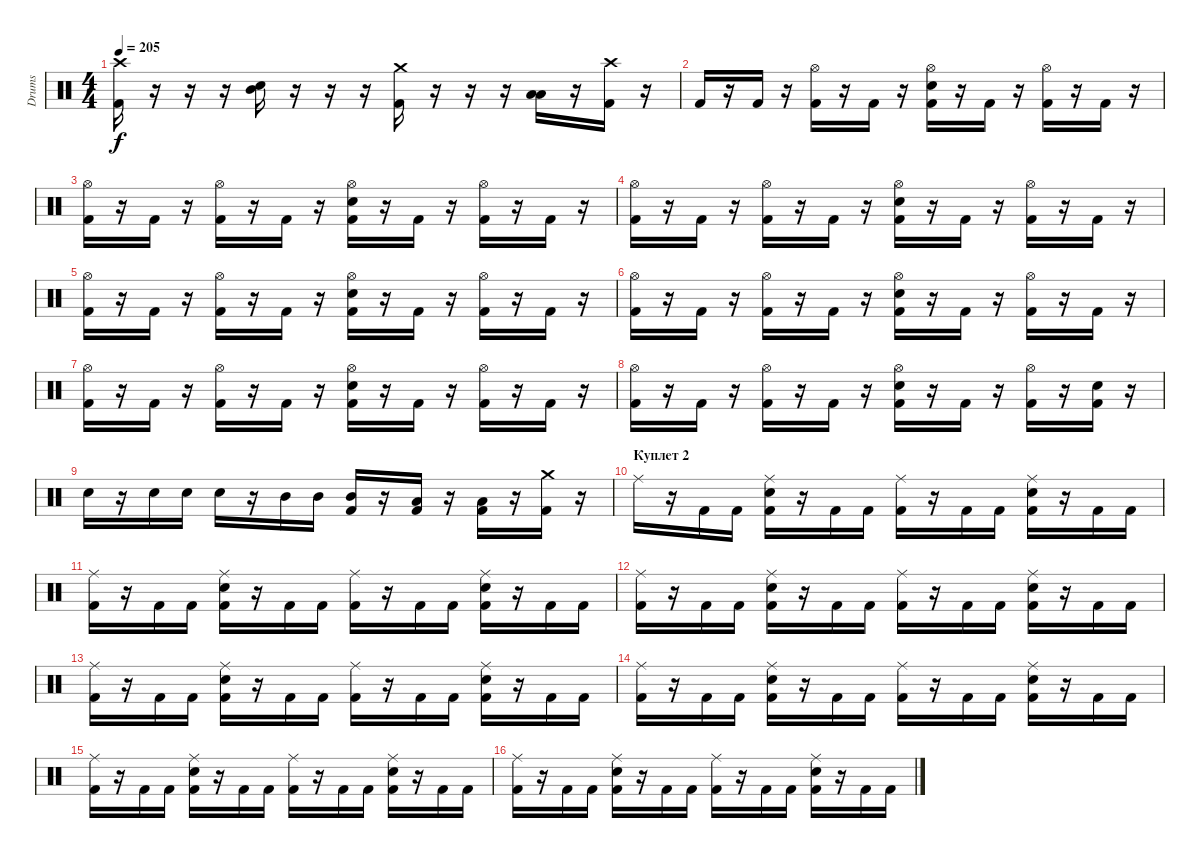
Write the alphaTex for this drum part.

\track ("Drums" "Drums") {instrument percussion}
\staff {score}
\articulation defaults
\ts (4 4)
\tempo 205
\clef neutral
\ks c
("Crash high (hit)" "Kick (hit) 2").16{dy f} r.16 r.16 r.16 ("Mid Tom (hit)" "Electric Snare (hit)").16 r.16 r.16 r.16 ("Crash medium (hit)" "Kick (hit) 2").16 r.16 r.16 r.16 ("Low Floor Tom (hit)" "Low Tom (hit)").16 r.16 ("Crash high (hit)" "Kick (hit) 2").16 r.16 |
"Kick (hit) 2".16 r.16 "Kick (hit) 2".16 r.16 ("Hi-Hat (open)" "Kick (hit) 2").16 r.16 "Kick (hit) 2".16 r.16 ("Hi-Hat (open)" "Electric Snare (hit)" "Kick (hit) 2").16 r.16 "Kick (hit) 2".16 r.16 ("Hi-Hat (open)" "Kick (hit) 2").16 r.16 "Kick (hit) 2".16 r.16 |
("Hi-Hat (open)" "Kick (hit) 2").16 r.16 "Kick (hit) 2".16 r.16 ("Hi-Hat (open)" "Kick (hit) 2").16 r.16 "Kick (hit) 2".16 r.16 ("Hi-Hat (open)" "Electric Snare (hit)" "Kick (hit) 2").16 r.16 "Kick (hit) 2".16 r.16 ("Hi-Hat (open)" "Kick (hit) 2").16 r.16 "Kick (hit) 2".16 r.16 |
("Hi-Hat (open)" "Kick (hit) 2").16 r.16 "Kick (hit) 2".16 r.16 ("Hi-Hat (open)" "Kick (hit) 2").16 r.16 "Kick (hit) 2".16 r.16 ("Hi-Hat (open)" "Electric Snare (hit)" "Kick (hit) 2").16 r.16 "Kick (hit) 2".16 r.16 ("Hi-Hat (open)" "Kick (hit) 2").16 r.16 "Kick (hit) 2".16 r.16 |
("Hi-Hat (open)" "Kick (hit) 2").16 r.16 "Kick (hit) 2".16 r.16 ("Hi-Hat (open)" "Kick (hit) 2").16 r.16 "Kick (hit) 2".16 r.16 ("Hi-Hat (open)" "Electric Snare (hit)" "Kick (hit) 2").16 r.16 "Kick (hit) 2".16 r.16 ("Hi-Hat (open)" "Kick (hit) 2").16 r.16 "Kick (hit) 2".16 r.16 |
("Hi-Hat (open)" "Kick (hit) 2").16 r.16 "Kick (hit) 2".16 r.16 ("Hi-Hat (open)" "Kick (hit) 2").16 r.16 "Kick (hit) 2".16 r.16 ("Hi-Hat (open)" "Electric Snare (hit)" "Kick (hit) 2").16 r.16 "Kick (hit) 2".16 r.16 ("Hi-Hat (open)" "Kick (hit) 2").16 r.16 "Kick (hit) 2".16 r.16 |
("Hi-Hat (open)" "Kick (hit) 2").16 r.16 "Kick (hit) 2".16 r.16 ("Hi-Hat (open)" "Kick (hit) 2").16 r.16 "Kick (hit) 2".16 r.16 ("Hi-Hat (open)" "Electric Snare (hit)" "Kick (hit) 2").16 r.16 "Kick (hit) 2".16 r.16 ("Hi-Hat (open)" "Kick (hit) 2").16 r.16 "Kick (hit) 2".16 r.16 |
("Hi-Hat (open)" "Kick (hit) 2").16 r.16 "Kick (hit) 2".16 r.16 ("Hi-Hat (open)" "Kick (hit) 2").16 r.16 "Kick (hit) 2".16 r.16 ("Hi-Hat (open)" "Electric Snare (hit)" "Kick (hit) 2").16 r.16 "Kick (hit) 2".16 r.16 ("Hi-Hat (open)" "Kick (hit) 2").16 r.16 ("Electric Snare (hit)" "Kick (hit) 2").16 r.16 |
"Electric Snare (hit)".16 r.16 "Electric Snare (hit)".16 "Electric Snare (hit)".16 "Electric Snare (hit)".16 r.16 "Mid Tom (hit)".16 "Mid Tom (hit)".16 ("Mid Tom (hit)" "Kick (hit) 2").16 r.16 ("Low Tom (hit)" "Kick (hit) 2").16 r.16 ("Low Floor Tom (hit)" "Kick (hit) 2").16 r.16 ("Crash medium (hit)" "Kick (hit) 2").16 r.16 |
\section ("" "Куплет 2")
"Ride (middle)".16 r.16 "Kick (hit) 2".16 "Kick (hit) 2".16 ("Ride (middle)" "Electric Snare (hit)" "Kick (hit) 2").16 r.16 "Kick (hit) 2".16 "Kick (hit) 2".16 ("Ride (middle)" "Kick (hit) 2").16 r.16 "Kick (hit) 2".16 "Kick (hit) 2".16 ("Ride (middle)" "Electric Snare (hit)" "Kick (hit) 2").16 r.16 "Kick (hit) 2".16 "Kick (hit) 2".16 |
("Ride (middle)" "Kick (hit) 2").16 r.16 "Kick (hit) 2".16 "Kick (hit) 2".16 ("Ride (middle)" "Electric Snare (hit)" "Kick (hit) 2").16 r.16 "Kick (hit) 2".16 "Kick (hit) 2".16 ("Ride (middle)" "Kick (hit) 2").16 r.16 "Kick (hit) 2".16 "Kick (hit) 2".16 ("Ride (middle)" "Electric Snare (hit)" "Kick (hit) 2").16 r.16 "Kick (hit) 2".16 "Kick (hit) 2".16 |
("Ride (middle)" "Kick (hit) 2").16 r.16 "Kick (hit) 2".16 "Kick (hit) 2".16 ("Ride (middle)" "Electric Snare (hit)" "Kick (hit) 2").16 r.16 "Kick (hit) 2".16 "Kick (hit) 2".16 ("Ride (middle)" "Kick (hit) 2").16 r.16 "Kick (hit) 2".16 "Kick (hit) 2".16 ("Ride (middle)" "Electric Snare (hit)" "Kick (hit) 2").16 r.16 "Kick (hit) 2".16 "Kick (hit) 2".16 |
("Ride (middle)" "Kick (hit) 2").16 r.16 "Kick (hit) 2".16 "Kick (hit) 2".16 ("Ride (middle)" "Electric Snare (hit)" "Kick (hit) 2").16 r.16 "Kick (hit) 2".16 "Kick (hit) 2".16 ("Ride (middle)" "Kick (hit) 2").16 r.16 "Kick (hit) 2".16 "Kick (hit) 2".16 ("Ride (middle)" "Electric Snare (hit)" "Kick (hit) 2").16 r.16 "Kick (hit) 2".16 "Kick (hit) 2".16 |
("Ride (middle)" "Kick (hit) 2").16 r.16 "Kick (hit) 2".16 "Kick (hit) 2".16 ("Ride (middle)" "Electric Snare (hit)" "Kick (hit) 2").16 r.16 "Kick (hit) 2".16 "Kick (hit) 2".16 ("Ride (middle)" "Kick (hit) 2").16 r.16 "Kick (hit) 2".16 "Kick (hit) 2".16 ("Ride (middle)" "Electric Snare (hit)" "Kick (hit) 2").16 r.16 "Kick (hit) 2".16 "Kick (hit) 2".16 |
("Ride (middle)" "Kick (hit) 2").16 r.16 "Kick (hit) 2".16 "Kick (hit) 2".16 ("Ride (middle)" "Electric Snare (hit)" "Kick (hit) 2").16 r.16 "Kick (hit) 2".16 "Kick (hit) 2".16 ("Ride (middle)" "Kick (hit) 2").16 r.16 "Kick (hit) 2".16 "Kick (hit) 2".16 ("Ride (middle)" "Electric Snare (hit)" "Kick (hit) 2").16 r.16 "Kick (hit) 2".16 "Kick (hit) 2".16 |
("Ride (middle)" "Kick (hit) 2").16 r.16 "Kick (hit) 2".16 "Kick (hit) 2".16 ("Ride (middle)" "Electric Snare (hit)" "Kick (hit) 2").16 r.16 "Kick (hit) 2".16 "Kick (hit) 2".16 ("Ride (middle)" "Kick (hit) 2").16 r.16 "Kick (hit) 2".16 "Kick (hit) 2".16 ("Ride (middle)" "Electric Snare (hit)" "Kick (hit) 2").16 r.16 "Kick (hit) 2".16 "Kick (hit) 2".16
